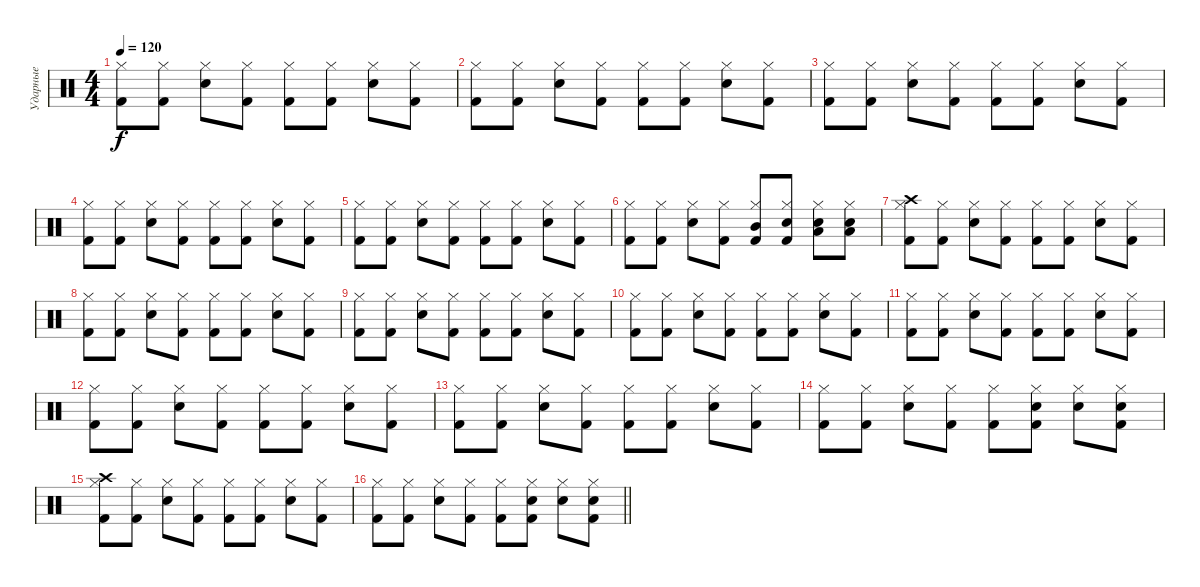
\track ("Ударные" "Ударные") {instrument percussion}
\staff {score}
\articulation defaults
\ts (4 4)
\tempo 120
\clef neutral
\ks c
("Kick (hit) 2" "Hi-Hat (closed)").8{dy f} ("Kick (hit) 2" "Hi-Hat (closed)").8 ("Snare (hit) 2" "Hi-Hat (closed)").8 ("Kick (hit) 2" "Hi-Hat (closed)").8 ("Kick (hit) 2" "Hi-Hat (closed)").8 ("Kick (hit) 2" "Hi-Hat (closed)").8 ("Snare (hit) 2" "Hi-Hat (closed)").8 ("Kick (hit) 2" "Hi-Hat (closed)").8 |
("Kick (hit) 2" "Hi-Hat (closed)").8 ("Kick (hit) 2" "Hi-Hat (closed)").8 ("Snare (hit) 2" "Hi-Hat (closed)").8 ("Kick (hit) 2" "Hi-Hat (closed)").8 ("Kick (hit) 2" "Hi-Hat (closed)").8 ("Kick (hit) 2" "Hi-Hat (closed)").8 ("Snare (hit) 2" "Hi-Hat (closed)").8 ("Kick (hit) 2" "Hi-Hat (closed)").8 |
("Kick (hit) 2" "Hi-Hat (closed)").8 ("Kick (hit) 2" "Hi-Hat (closed)").8 ("Snare (hit) 2" "Hi-Hat (closed)").8 ("Kick (hit) 2" "Hi-Hat (closed)").8 ("Kick (hit) 2" "Hi-Hat (closed)").8 ("Kick (hit) 2" "Hi-Hat (closed)").8 ("Snare (hit) 2" "Hi-Hat (closed)").8 ("Kick (hit) 2" "Hi-Hat (closed)").8 |
("Kick (hit) 2" "Hi-Hat (closed)").8 ("Kick (hit) 2" "Hi-Hat (closed)").8 ("Snare (hit) 2" "Hi-Hat (closed)").8 ("Kick (hit) 2" "Hi-Hat (closed)").8 ("Kick (hit) 2" "Hi-Hat (closed)").8 ("Kick (hit) 2" "Hi-Hat (closed)").8 ("Snare (hit) 2" "Hi-Hat (closed)").8 ("Kick (hit) 2" "Hi-Hat (closed)").8 |
("Kick (hit) 2" "Hi-Hat (closed)").8 ("Kick (hit) 2" "Hi-Hat (closed)").8 ("Snare (hit) 2" "Hi-Hat (closed)").8 ("Kick (hit) 2" "Hi-Hat (closed)").8 ("Kick (hit) 2" "Hi-Hat (closed)").8 ("Kick (hit) 2" "Hi-Hat (closed)").8 ("Snare (hit) 2" "Hi-Hat (closed)").8 ("Kick (hit) 2" "Hi-Hat (closed)").8 |
("Kick (hit) 2" "Hi-Hat (closed)").8 ("Kick (hit) 2" "Hi-Hat (closed)").8 ("Snare (hit) 2" "Hi-Hat (closed)").8 ("Kick (hit) 2" "Hi-Hat (closed)").8 ("Kick (hit) 2" "Hi-Hat (closed)" "Mid Tom (hit)").8 ("Kick (hit) 2" "Hi-Hat (closed)" "Snare (hit) 2").8 ("Snare (hit) 2" "Hi-Hat (closed)" "Low Tom (hit)").8 ("Snare (hit) 2" "Hi-Hat (closed)" "Low Floor Tom (hit)").8 |
("Kick (hit) 2" "Hi-Hat (closed)" "Crash high (hit)").8 ("Kick (hit) 2" "Hi-Hat (closed)").8 ("Snare (hit) 2" "Hi-Hat (closed)").8 ("Kick (hit) 2" "Hi-Hat (closed)").8 ("Kick (hit) 2" "Hi-Hat (closed)").8 ("Kick (hit) 2" "Hi-Hat (closed)").8 ("Snare (hit) 2" "Hi-Hat (closed)").8 ("Kick (hit) 2" "Hi-Hat (closed)").8 |
("Kick (hit) 2" "Hi-Hat (closed)").8 ("Kick (hit) 2" "Hi-Hat (closed)").8 ("Snare (hit) 2" "Hi-Hat (closed)").8 ("Kick (hit) 2" "Hi-Hat (closed)").8 ("Kick (hit) 2" "Hi-Hat (closed)").8 ("Kick (hit) 2" "Hi-Hat (closed)").8 ("Snare (hit) 2" "Hi-Hat (closed)").8 ("Kick (hit) 2" "Hi-Hat (closed)").8 |
("Kick (hit) 2" "Hi-Hat (closed)").8 ("Kick (hit) 2" "Hi-Hat (closed)").8 ("Snare (hit) 2" "Hi-Hat (closed)").8 ("Kick (hit) 2" "Hi-Hat (closed)").8 ("Kick (hit) 2" "Hi-Hat (closed)").8 ("Kick (hit) 2" "Hi-Hat (closed)").8 ("Snare (hit) 2" "Hi-Hat (closed)").8 ("Kick (hit) 2" "Hi-Hat (closed)").8 |
("Kick (hit) 2" "Hi-Hat (closed)").8 ("Kick (hit) 2" "Hi-Hat (closed)").8 ("Snare (hit) 2" "Hi-Hat (closed)").8 ("Kick (hit) 2" "Hi-Hat (closed)").8 ("Kick (hit) 2" "Hi-Hat (closed)").8 ("Kick (hit) 2" "Hi-Hat (closed)").8 ("Snare (hit) 2" "Hi-Hat (closed)").8 ("Kick (hit) 2" "Hi-Hat (closed)").8 |
("Kick (hit) 2" "Hi-Hat (closed)").8 ("Kick (hit) 2" "Hi-Hat (closed)").8 ("Snare (hit) 2" "Hi-Hat (closed)").8 ("Kick (hit) 2" "Hi-Hat (closed)").8 ("Kick (hit) 2" "Hi-Hat (closed)").8 ("Kick (hit) 2" "Hi-Hat (closed)").8 ("Snare (hit) 2" "Hi-Hat (closed)").8 ("Kick (hit) 2" "Hi-Hat (closed)").8 |
("Kick (hit) 2" "Hi-Hat (closed)").8 ("Kick (hit) 2" "Hi-Hat (closed)").8 ("Snare (hit) 2" "Hi-Hat (closed)").8 ("Kick (hit) 2" "Hi-Hat (closed)").8 ("Kick (hit) 2" "Hi-Hat (closed)").8 ("Kick (hit) 2" "Hi-Hat (closed)").8 ("Snare (hit) 2" "Hi-Hat (closed)").8 ("Kick (hit) 2" "Hi-Hat (closed)").8 |
("Kick (hit) 2" "Hi-Hat (closed)").8 ("Kick (hit) 2" "Hi-Hat (closed)").8 ("Snare (hit) 2" "Hi-Hat (closed)").8 ("Kick (hit) 2" "Hi-Hat (closed)").8 ("Kick (hit) 2" "Hi-Hat (closed)").8 ("Kick (hit) 2" "Hi-Hat (closed)").8 ("Snare (hit) 2" "Hi-Hat (closed)").8 ("Kick (hit) 2" "Hi-Hat (closed)").8 |
("Kick (hit) 2" "Hi-Hat (closed)").8 ("Kick (hit) 2" "Hi-Hat (closed)").8 ("Snare (hit) 2" "Hi-Hat (closed)").8 ("Kick (hit) 2" "Hi-Hat (closed)").8 ("Kick (hit) 2" "Hi-Hat (closed)").8 ("Kick (hit) 2" "Hi-Hat (closed)" "Snare (hit) 2").8 ("Snare (hit) 2" "Hi-Hat (closed)").8 ("Kick (hit) 2" "Hi-Hat (closed)" "Snare (hit) 2").8 |
("Kick (hit) 2" "Hi-Hat (closed)" "Crash high (hit)").8 ("Kick (hit) 2" "Hi-Hat (closed)").8 ("Snare (hit) 2" "Hi-Hat (closed)").8 ("Kick (hit) 2" "Hi-Hat (closed)").8 ("Kick (hit) 2" "Hi-Hat (closed)").8 ("Kick (hit) 2" "Hi-Hat (closed)").8 ("Snare (hit) 2" "Hi-Hat (closed)").8 ("Kick (hit) 2" "Hi-Hat (closed)").8 |
\barLineRight lightlight
("Kick (hit) 2" "Hi-Hat (closed)").8 ("Kick (hit) 2" "Hi-Hat (closed)").8 ("Snare (hit) 2" "Hi-Hat (closed)").8 ("Kick (hit) 2" "Hi-Hat (closed)").8 ("Kick (hit) 2" "Hi-Hat (closed)").8 ("Kick (hit) 2" "Hi-Hat (closed)" "Snare (hit) 2").8 ("Snare (hit) 2" "Hi-Hat (closed)").8 ("Kick (hit) 2" "Hi-Hat (closed)" "Snare (hit) 2").8
